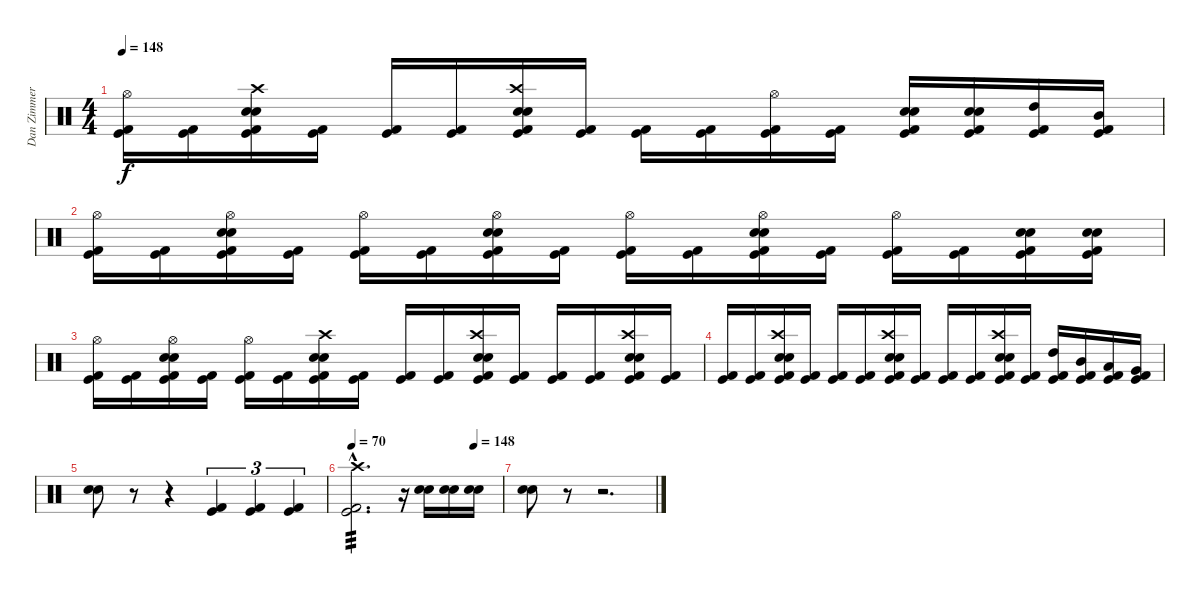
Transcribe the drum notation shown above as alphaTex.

\track ("Dan Zimmerman<Drum>" "Dan Zimmer") {instrument percussion}
\staff {score}
\articulation defaults
\ts (4 4)
\tempo 148
\clef neutral
\ks c
("Hi-Hat (open)" "Kick (hit) 2" "Kick (hit)").16{dy f} ("Kick (hit) 2" "Kick (hit)").16 ("Crash high (hit)" "Snare (hit) 2" "Electric Snare (hit)" "Kick (hit) 2" "Kick (hit)").16 ("Kick (hit) 2" "Kick (hit)").16 ("Kick (hit) 2" "Kick (hit)").16 ("Kick (hit) 2" "Kick (hit)").16 ("Crash high (hit)" "Snare (hit) 2" "Electric Snare (hit)" "Kick (hit) 2" "Kick (hit)").16 ("Kick (hit) 2" "Kick (hit)").16 ("Kick (hit) 2" "Kick (hit)").16 ("Kick (hit) 2" "Kick (hit)").16 ("Hi-Hat (open)" "Kick (hit) 2" "Kick (hit)").16 ("Kick (hit) 2" "Kick (hit)").16 ("Snare (hit) 2" "Electric Snare (hit)" "Kick (hit) 2" "Kick (hit)").16 ("Snare (hit) 2" "Electric Snare (hit)" "Kick (hit) 2" "Kick (hit)").16 ("High Tom (hit)" "Kick (hit) 2" "Kick (hit)").16 ("Mid Tom (hit)" "Kick (hit) 2" "Kick (hit)").16 |
("Hi-Hat (open)" "Kick (hit) 2" "Kick (hit)").16 ("Kick (hit) 2" "Kick (hit)").16 ("Hi-Hat (open)" "Snare (hit) 2" "Electric Snare (hit)" "Kick (hit) 2" "Kick (hit)").16 ("Kick (hit) 2" "Kick (hit)").16 ("Hi-Hat (open)" "Kick (hit) 2" "Kick (hit)").16 ("Kick (hit) 2" "Kick (hit)").16 ("Hi-Hat (open)" "Snare (hit) 2" "Electric Snare (hit)" "Kick (hit) 2" "Kick (hit)").16 ("Kick (hit) 2" "Kick (hit)").16 ("Hi-Hat (open)" "Kick (hit) 2" "Kick (hit)").16 ("Kick (hit) 2" "Kick (hit)").16 ("Hi-Hat (open)" "Snare (hit) 2" "Electric Snare (hit)" "Kick (hit) 2" "Kick (hit)").16 ("Kick (hit) 2" "Kick (hit)").16 ("Hi-Hat (open)" "Kick (hit) 2" "Kick (hit)").16 ("Kick (hit) 2" "Kick (hit)").16 ("Snare (hit) 2" "Electric Snare (hit)" "Kick (hit) 2" "Kick (hit)").16 ("Snare (hit) 2" "Electric Snare (hit)" "Kick (hit) 2" "Kick (hit)").16 |
("Hi-Hat (open)" "Kick (hit) 2" "Kick (hit)").16 ("Kick (hit) 2" "Kick (hit)").16 ("Hi-Hat (open)" "Snare (hit) 2" "Electric Snare (hit)" "Kick (hit) 2" "Kick (hit)").16 ("Kick (hit) 2" "Kick (hit)").16 ("Hi-Hat (open)" "Kick (hit) 2" "Kick (hit)").16 ("Kick (hit) 2" "Kick (hit)").16 ("Crash high (hit)" "Snare (hit) 2" "Electric Snare (hit)" "Kick (hit) 2" "Kick (hit)").16 ("Kick (hit) 2" "Kick (hit)").16 ("Kick (hit) 2" "Kick (hit)").16 ("Kick (hit) 2" "Kick (hit)").16 ("Crash high (hit)" "Snare (hit) 2" "Electric Snare (hit)" "Kick (hit) 2" "Kick (hit)").16 ("Kick (hit) 2" "Kick (hit)").16 ("Kick (hit) 2" "Kick (hit)").16 ("Kick (hit) 2" "Kick (hit)").16 ("Crash high (hit)" "Snare (hit) 2" "Electric Snare (hit)" "Kick (hit) 2" "Kick (hit)").16 ("Kick (hit) 2" "Kick (hit)").16 |
("Kick (hit) 2" "Kick (hit)").16 ("Kick (hit) 2" "Kick (hit)").16 ("Crash high (hit)" "Snare (hit) 2" "Electric Snare (hit)" "Kick (hit) 2" "Kick (hit)").16 ("Kick (hit) 2" "Kick (hit)").16 ("Kick (hit) 2" "Kick (hit)").16 ("Kick (hit) 2" "Kick (hit)").16 ("Crash high (hit)" "Snare (hit) 2" "Electric Snare (hit)" "Kick (hit) 2" "Kick (hit)").16 ("Kick (hit) 2" "Kick (hit)").16 ("Kick (hit) 2" "Kick (hit)").16 ("Kick (hit) 2" "Kick (hit)").16 ("Crash high (hit)" "Snare (hit) 2" "Electric Snare (hit)" "Kick (hit) 2" "Kick (hit)").16 ("Kick (hit) 2" "Kick (hit)").16 ("High Tom (hit)" "Kick (hit) 2" "Kick (hit)").16 ("Mid Tom (hit)" "Kick (hit) 2" "Kick (hit)").16 ("Low Tom (hit)" "Kick (hit) 2" "Kick (hit)").16 ("Very Low Tom (hit)" "Kick (hit) 2" "Kick (hit)").16 |
("Electric Snare (hit)" "Snare (hit) 2").8 r.8 r.4 ("Kick (hit) 2" "Kick (hit)").4{tu (3 2)} ("Kick (hit) 2" "Kick (hit)").4{tu (3 2)} ("Kick (hit) 2" "Kick (hit)").4{tu (3 2)} |
\tempo 70
\tempo (148 0.8125)
("Crash high (hit)"{hac} "Kick (hit) 2"{hac} "Kick (hit)"{hac}).2{d tp 3} r.16 ("Electric Snare (hit)" "Snare (hit) 2").16 ("Electric Snare (hit)" "Snare (hit) 2").16 ("Electric Snare (hit)" "Snare (hit) 2").16 |
("Electric Snare (hit)" "Snare (hit) 2").8 r.8 r.2{d}
